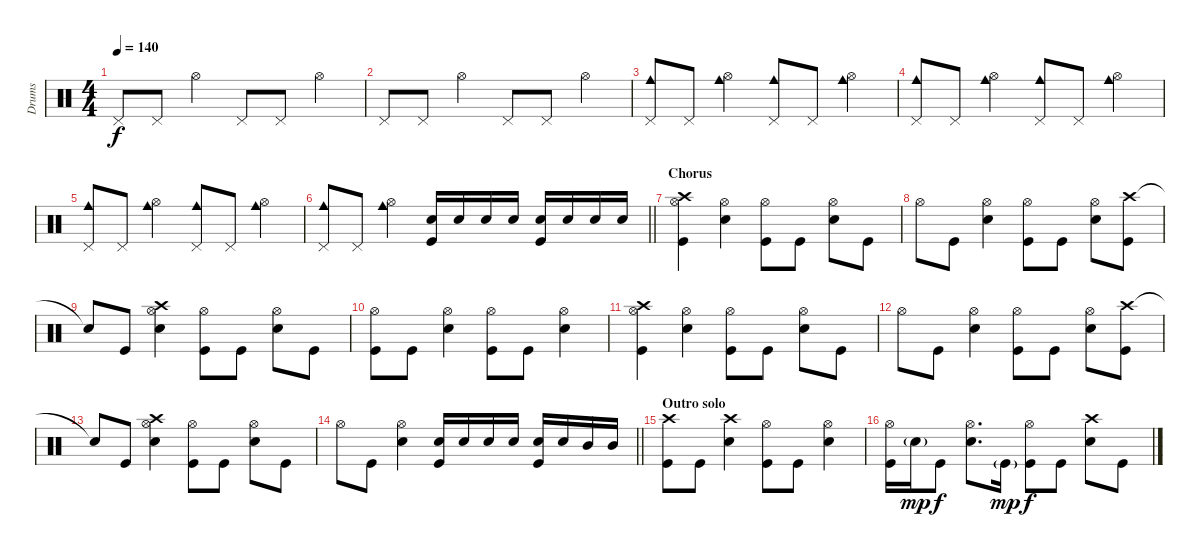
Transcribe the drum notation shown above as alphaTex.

\track ("Drums" "Drums") {instrument percussion}
\staff {score}
\articulation defaults
\ts (4 4)
\tempo 140
\clef neutral
\ks c "Pedal Hi-Hat (hit)".8{dy f} "Pedal Hi-Hat (hit)".8 "Hi-Hat (open)".4 "Pedal Hi-Hat (hit)".8 "Pedal Hi-Hat (hit)".8 "Hi-Hat (open)".4
|
"Pedal Hi-Hat (hit)".8 "Pedal Hi-Hat (hit)".8 "Hi-Hat (open)".4 "Pedal Hi-Hat (hit)".8 "Pedal Hi-Hat (hit)".8 "Hi-Hat (open)".4 |
("Cowbell medium (hit)" "Pedal Hi-Hat (hit)").8 "Pedal Hi-Hat (hit)".8 ("Cowbell medium (hit)" "Hi-Hat (open)").4 ("Cowbell medium (hit)" "Pedal Hi-Hat (hit)").8 "Pedal Hi-Hat (hit)".8 ("Cowbell medium (hit)" "Hi-Hat (open)").4 |
("Cowbell medium (hit)" "Pedal Hi-Hat (hit)").8 "Pedal Hi-Hat (hit)".8 ("Cowbell medium (hit)" "Hi-Hat (open)").4 ("Cowbell medium (hit)" "Pedal Hi-Hat (hit)").8 "Pedal Hi-Hat (hit)".8 ("Cowbell medium (hit)" "Hi-Hat (open)").4 |
("Cowbell medium (hit)" "Pedal Hi-Hat (hit)").8 "Pedal Hi-Hat (hit)".8 ("Cowbell medium (hit)" "Hi-Hat (open)").4 ("Cowbell medium (hit)" "Pedal Hi-Hat (hit)").8 "Pedal Hi-Hat (hit)".8 ("Cowbell medium (hit)" "Hi-Hat (open)").4 |
\barLineRight lightlight
("Cowbell medium (hit)" "Pedal Hi-Hat (hit)").8 "Pedal Hi-Hat (hit)".8 ("Cowbell medium (hit)" "Hi-Hat (open)").4 ("Electric Snare (hit)" "Kick (hit)").16 "Electric Snare (hit)".16 "Electric Snare (hit)".16 "Electric Snare (hit)".16 ("Electric Snare (hit)" "Kick (hit)").16 "Electric Snare (hit)".16 "Electric Snare (hit)".16 "Electric Snare (hit)".16 |
\section ("" "Chorus")
("Crash high (hit)" "Hi-Hat (open)" "Kick (hit)").4 ("Hi-Hat (open)" "Electric Snare (hit)").4 ("Hi-Hat (open)" "Kick (hit)").8 "Kick (hit)".8 ("Hi-Hat (open)" "Electric Snare (hit)").8 "Kick (hit)".8 |
"Hi-Hat (open)".8 "Kick (hit)".8 ("Hi-Hat (open)" "Electric Snare (hit)").4 ("Hi-Hat (open)" "Kick (hit)").8 "Kick (hit)".8 ("Hi-Hat (open)" "Electric Snare (hit)").8 ("Crash high (hit)" "Kick (hit)").8 |
"Snare (hit)"{t}.8 "Kick (hit)".8 ("Crash high (hit)" "Hi-Hat (open)" "Electric Snare (hit)").4 ("Hi-Hat (open)" "Kick (hit)").8 "Kick (hit)".8 ("Hi-Hat (open)" "Electric Snare (hit)").8 "Kick (hit)".8 |
("Hi-Hat (open)" "Kick (hit)").8 "Kick (hit)".8 ("Hi-Hat (open)" "Electric Snare (hit)").4 ("Hi-Hat (open)" "Kick (hit)").8 "Kick (hit)".8 ("Hi-Hat (open)" "Electric Snare (hit)").4 |
("Crash high (hit)" "Hi-Hat (open)" "Kick (hit)").4 ("Hi-Hat (open)" "Electric Snare (hit)").4 ("Hi-Hat (open)" "Kick (hit)").8 "Kick (hit)".8 ("Hi-Hat (open)" "Electric Snare (hit)").8 "Kick (hit)".8 |
"Hi-Hat (open)".8 "Kick (hit)".8 ("Hi-Hat (open)" "Electric Snare (hit)").4 ("Hi-Hat (open)" "Kick (hit)").8 "Kick (hit)".8 ("Hi-Hat (open)" "Electric Snare (hit)").8 ("Crash high (hit)" "Kick (hit)").8 |
"Snare (hit)"{t}.8 "Kick (hit)".8 ("Crash high (hit)" "Hi-Hat (open)" "Electric Snare (hit)").4 ("Hi-Hat (open)" "Kick (hit)").8 "Kick (hit)".8 ("Hi-Hat (open)" "Electric Snare (hit)").8 "Kick (hit)".8 |
\barLineRight lightlight "Hi-Hat (open)".8 "Kick (hit)".8
("Hi-Hat (open)" "Electric Snare (hit)").4 ("Electric Snare (hit)" "Kick (hit)").16 "Electric Snare (hit)".16 "Electric Snare (hit)".16 "Electric Snare (hit)".16 ("Snare (hit) 2" "Kick (hit)").16 "Snare (hit) 2".16 "Mid Tom (hit)".16 "Mid Tom (hit)".16 |
\section ("" "Outro solo")
("Crash high (hit)" "Kick (hit)").8 "Kick (hit)".8 ("Crash high (hit)" "Electric Snare (hit)").4 ("Hi-Hat (open)" "Kick (hit)").8 "Kick (hit)".8 ("Hi-Hat (open)" "Electric Snare (hit)").4 |
("Hi-Hat (open)" "Kick (hit)").16 "Electric Snare (hit)"{g}.16{dy mp} "Kick (hit)".8{dy f} ("Hi-Hat (open)" "Electric Snare (hit)").8{d} "Kick (hit)"{g}.16{dy mp} ("Hi-Hat (open)" "Kick (hit)").8{dy f} "Kick (hit)".8 ("Crash high (hit)" "Electric Snare (hit)").8 "Kick (hit)".8
